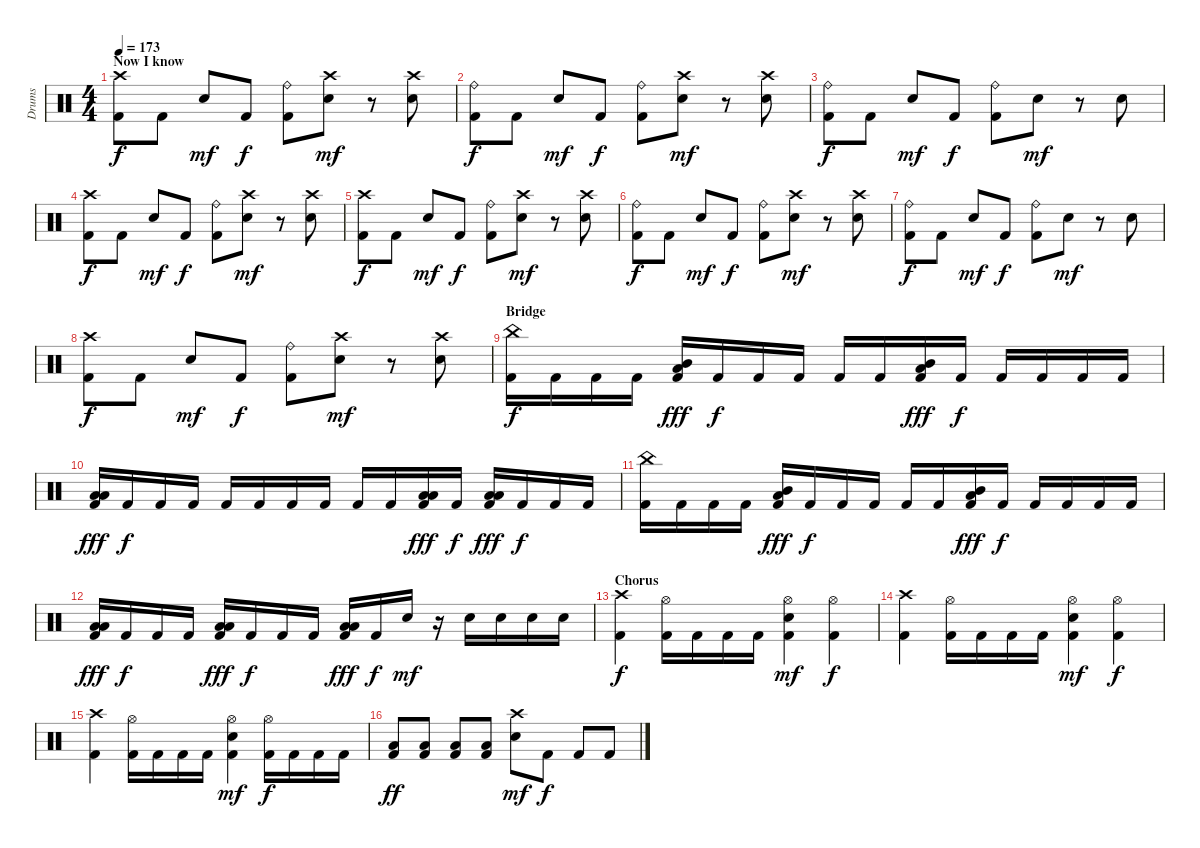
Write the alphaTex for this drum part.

\track ("Drums" "Drums") {instrument percussion}
\staff {score}
\articulation defaults
\ts (4 4)
\section ("" "Now I know")
\tempo 173
\clef neutral
\ks c
("Crash high (hit)" "Kick (hit) 2").8{dy f} "Kick (hit) 2".8 "Snare (hit) 2".8{dy mf} "Kick (hit) 2".8{dy f} ("Ride (bell)" "Kick (hit) 2").8 ("Crash high (hit)" "Snare (hit) 2").8{dy mf} r.8 ("Crash high (hit)" "Snare (hit) 2").8 |
("Ride (bell)" "Kick (hit) 2").8{dy f} "Kick (hit) 2".8 "Snare (hit) 2".8{dy mf} "Kick (hit) 2".8{dy f} ("Ride (bell)" "Kick (hit) 2").8 ("Crash high (hit)" "Snare (hit) 2").8{dy mf} r.8 ("Crash high (hit)" "Snare (hit) 2").8 |
("Ride (bell)" "Kick (hit) 2").8{dy f} "Kick (hit) 2".8 "Snare (hit) 2".8{dy mf} "Kick (hit) 2".8{dy f} ("Ride (bell)" "Kick (hit) 2").8 "Snare (hit) 2".8{dy mf} r.8 "Snare (hit) 2".8 |
("Crash high (hit)" "Kick (hit) 2").8{dy f} "Kick (hit) 2".8 "Snare (hit) 2".8{dy mf} "Kick (hit) 2".8{dy f} ("Ride (bell)" "Kick (hit) 2").8 ("Crash high (hit)" "Snare (hit) 2").8{dy mf} r.8 ("Crash high (hit)" "Snare (hit) 2").8 |
("Crash high (hit)" "Kick (hit) 2").8{dy f} "Kick (hit) 2".8 "Snare (hit) 2".8{dy mf} "Kick (hit) 2".8{dy f} ("Ride (bell)" "Kick (hit) 2").8 ("Crash high (hit)" "Snare (hit) 2").8{dy mf} r.8 ("Crash high (hit)" "Snare (hit) 2").8 |
("Ride (bell)" "Kick (hit) 2").8{dy f} "Kick (hit) 2".8 "Snare (hit) 2".8{dy mf} "Kick (hit) 2".8{dy f} ("Ride (bell)" "Kick (hit) 2").8 ("Crash high (hit)" "Snare (hit) 2").8{dy mf} r.8 ("Crash high (hit)" "Snare (hit) 2").8 |
("Ride (bell)" "Kick (hit) 2").8{dy f} "Kick (hit) 2".8 "Snare (hit) 2".8{dy mf} "Kick (hit) 2".8{dy f} ("Ride (bell)" "Kick (hit) 2").8 "Snare (hit) 2".8{dy mf} r.8 "Snare (hit) 2".8 |
("Crash high (hit)" "Kick (hit) 2").8{dy f} "Kick (hit) 2".8 "Snare (hit) 2".8{dy mf} "Kick (hit) 2".8{dy f} ("Ride (bell)" "Kick (hit) 2").8 ("Crash high (hit)" "Snare (hit) 2").8{dy mf} r.8 ("Crash high (hit)" "Snare (hit) 2").8 |
\section ("" "Bridge")
("China (hit)" "Kick (hit) 2").16{dy f} "Kick (hit) 2".16 "Kick (hit) 2".16 "Kick (hit) 2".16 ("Mid Tom (hit)" "Low Floor Tom (hit)" "Kick (hit) 2").16{dy fff} "Kick (hit) 2".16{dy f} "Kick (hit) 2".16 "Kick (hit) 2".16 "Kick (hit) 2".16 "Kick (hit) 2".16 ("Mid Tom (hit)" "Low Floor Tom (hit)" "Kick (hit) 2").16{dy fff} "Kick (hit) 2".16{dy f} "Kick (hit) 2".16 "Kick (hit) 2".16 "Kick (hit) 2".16 "Kick (hit) 2".16 |
("Low Tom (hit)" "Low Floor Tom (hit)" "Kick (hit) 2").16{dy fff} "Kick (hit) 2".16{dy f} "Kick (hit) 2".16 "Kick (hit) 2".16 "Kick (hit) 2".16 "Kick (hit) 2".16 "Kick (hit) 2".16 "Kick (hit) 2".16 "Kick (hit) 2".16 "Kick (hit) 2".16 ("Low Tom (hit)" "Low Floor Tom (hit)" "Kick (hit) 2").16{dy fff} "Kick (hit) 2".16{dy f} ("Low Tom (hit)" "Low Floor Tom (hit)" "Kick (hit) 2").16{dy fff} "Kick (hit) 2".16{dy f} "Kick (hit) 2".16 "Kick (hit) 2".16 |
("China (hit)" "Kick (hit) 2").16 "Kick (hit) 2".16 "Kick (hit) 2".16 "Kick (hit) 2".16 ("Mid Tom (hit)" "Low Floor Tom (hit)" "Kick (hit) 2").16{dy fff} "Kick (hit) 2".16{dy f} "Kick (hit) 2".16 "Kick (hit) 2".16 "Kick (hit) 2".16 "Kick (hit) 2".16 ("Mid Tom (hit)" "Low Floor Tom (hit)" "Kick (hit) 2").16{dy fff} "Kick (hit) 2".16{dy f} "Kick (hit) 2".16 "Kick (hit) 2".16 "Kick (hit) 2".16 "Kick (hit) 2".16 |
("Low Tom (hit)" "Low Floor Tom (hit)" "Kick (hit) 2").16{dy fff} "Kick (hit) 2".16{dy f} "Kick (hit) 2".16 "Kick (hit) 2".16 ("Low Tom (hit)" "Low Floor Tom (hit)" "Kick (hit) 2").16{dy fff} "Kick (hit) 2".16{dy f} "Kick (hit) 2".16 "Kick (hit) 2".16 ("Low Tom (hit)" "Low Floor Tom (hit)" "Kick (hit) 2").16{dy fff} "Kick (hit) 2".16{dy f} "Snare (hit) 2".16{dy mf} r.16 "Snare (hit) 2".16 "Snare (hit) 2".16 "Snare (hit) 2".16 "Snare (hit) 2".16 |
\section ("" "Chorus")
("Crash high (hit)" "Kick (hit) 2").4{dy f} ("Hi-Hat (open)" "Kick (hit) 2").16 "Kick (hit) 2".16 "Kick (hit) 2".16 "Kick (hit) 2".16 ("Hi-Hat (open)" "Snare (hit) 2" "Kick (hit) 2").4{dy mf} ("Hi-Hat (open)" "Kick (hit) 2").4{dy f} |
("Crash high (hit)" "Kick (hit) 2").4 ("Hi-Hat (open)" "Kick (hit) 2").16 "Kick (hit) 2".16 "Kick (hit) 2".16 "Kick (hit) 2".16 ("Hi-Hat (open)" "Snare (hit) 2" "Kick (hit) 2").4{dy mf} ("Hi-Hat (open)" "Kick (hit) 2").4{dy f} |
("Crash high (hit)" "Kick (hit) 2").4 ("Hi-Hat (open)" "Kick (hit) 2").16 "Kick (hit) 2".16 "Kick (hit) 2".16 "Kick (hit) 2".16 ("Hi-Hat (open)" "Snare (hit) 2" "Kick (hit) 2").4{dy mf} ("Hi-Hat (open)" "Kick (hit) 2").16{dy f} "Kick (hit) 2".16 "Kick (hit) 2".16 "Kick (hit) 2".16 |
("Low Tom (hit)" "Kick (hit) 2").8{dy ff} ("Low Tom (hit)" "Kick (hit) 2").8 ("Low Tom (hit)" "Kick (hit) 2").8 ("Low Tom (hit)" "Kick (hit) 2").8 ("Crash high (hit)" "Snare (hit) 2").8{dy mf} "Kick (hit) 2".8{dy f} "Kick (hit) 2".8 "Kick (hit) 2".8
